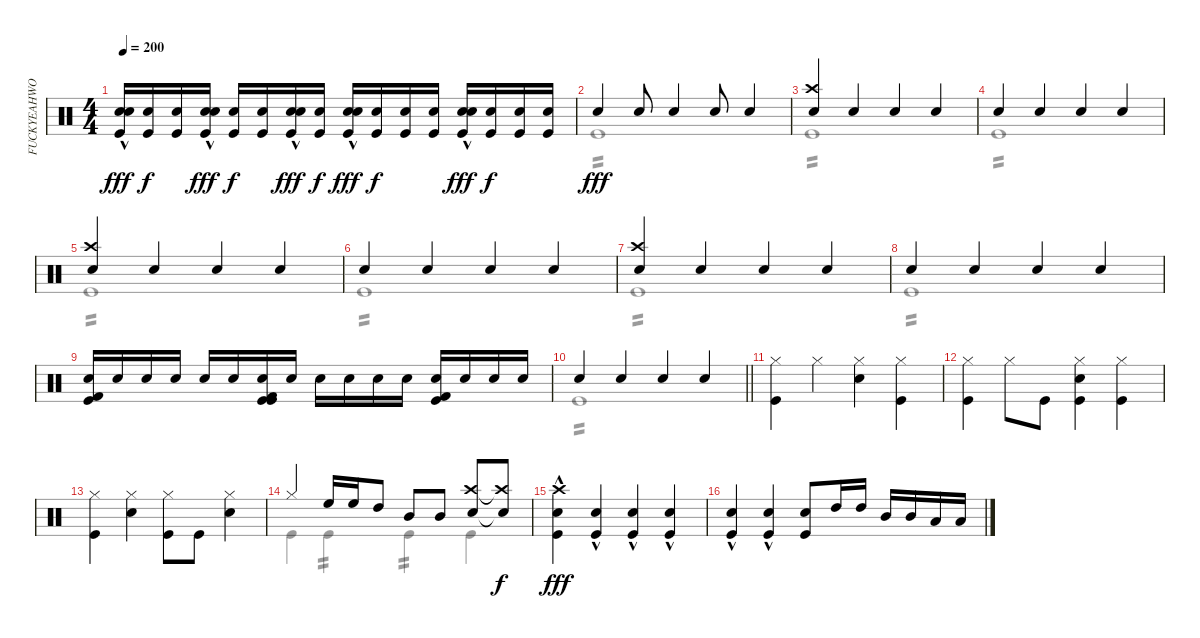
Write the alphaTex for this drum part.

\track ("FUCKYEAHWOOTDAVEMACKINTOSH!(Percussion)" "FUCKYEAHWO") {instrument percussion}
\staff {score}
\articulation defaults
\voice
\ts (4 4)
\tempo 200
\clef neutral
\ks c
("Snare (hit) 2"{hac} "Kick (hit)"{hac} "Electric Snare (hit)").16{dy fff} ("Snare (hit) 2" "Kick (hit)").16{dy f} ("Snare (hit) 2" "Kick (hit)").16 ("Snare (hit) 2"{hac} "Kick (hit)"{hac} "Electric Snare (hit)").16{dy fff} ("Snare (hit) 2" "Kick (hit)").16{dy f} ("Snare (hit) 2" "Kick (hit)").16 ("Snare (hit) 2"{hac} "Kick (hit)"{hac} "Electric Snare (hit)").16{dy fff} ("Snare (hit) 2" "Kick (hit)").16{dy f} ("Kick (hit)"{hac} "Snare (hit) 2"{hac} "Electric Snare (hit)").16{dy fff} ("Snare (hit) 2" "Kick (hit)").16{dy f} ("Snare (hit) 2" "Kick (hit)").16 ("Snare (hit) 2" "Kick (hit)").16 ("Snare (hit) 2"{hac} "Kick (hit)"{hac} "Electric Snare (hit)").16{dy fff} ("Snare (hit) 2" "Kick (hit)").16{dy f} ("Snare (hit) 2" "Kick (hit)").16 ("Kick (hit)" "Snare (hit) 2").16 |
"Snare (hit) 2".4{dy fff} "Snare (hit) 2".8 "Snare (hit) 2".4 "Snare (hit) 2".8 "Snare (hit) 2".4 |
("Snare (hit) 2" "Crash high (hit)").4 "Snare (hit) 2".4 "Snare (hit) 2".4 "Snare (hit) 2".4 |
"Snare (hit) 2".4 "Snare (hit) 2".4 "Snare (hit) 2".4 "Snare (hit) 2".4 |
("Snare (hit) 2" "Crash high (hit)").4 "Snare (hit) 2".4 "Snare (hit) 2".4 "Snare (hit) 2".4 |
"Snare (hit) 2".4 "Snare (hit) 2".4 "Snare (hit) 2".4 "Snare (hit) 2".4 |
("Snare (hit) 2" "Crash high (hit)").4 "Snare (hit) 2".4 "Snare (hit) 2".4 "Snare (hit) 2".4 |
"Snare (hit) 2".4 "Snare (hit) 2".4 "Snare (hit) 2".4 "Snare (hit) 2".4 |
("Snare (hit) 2" "Kick (hit)" "Kick (hit) 2").16 "Snare (hit) 2".16 "Snare (hit) 2".16 "Snare (hit) 2".16 "Snare (hit) 2".16 "Snare (hit) 2".16 ("Snare (hit) 2" "Kick (hit) 2" "Kick (hit)" "Kick (hit)").16 "Snare (hit) 2".16 "Snare (hit) 2".16 "Snare (hit) 2".16 "Snare (hit) 2".16 "Snare (hit) 2".16 ("Snare (hit) 2" "Kick (hit)" "Kick (hit) 2").16 "Snare (hit) 2".16 "Snare (hit) 2".16 "Snare (hit) 2".16 |
\barLineRight lightlight "Snare (hit) 2".4 "Snare (hit) 2".4 "Snare (hit) 2".4 "Snare (hit) 2".4
|
("Kick (hit)" "Hi-Hat (closed)").4 "Hi-Hat (closed)".4 ("Hi-Hat (closed)" "Snare (hit) 2").4 ("Hi-Hat (closed)" "Kick (hit)").4 |
("Hi-Hat (closed)" "Kick (hit)").4 "Hi-Hat (closed)".8 "Kick (hit)".8 ("Kick (hit)" "Snare (hit) 2" "Hi-Hat (closed)").4 ("Kick (hit)" "Hi-Hat (closed)").4 |
("Hi-Hat (closed)" "Kick (hit)").4 ("Hi-Hat (closed)" "Snare (hit) 2").4 ("Kick (hit)" "Hi-Hat (closed)").8 "Kick (hit)".8 ("Snare (hit) 2" "Hi-Hat (closed)").4 |
"Hi-Hat (closed)".4 "High Floor Tom (hit)".16 "High Floor Tom (hit)".16 "High Tom (hit)".8 "Mid Tom (hit)".8 "Mid Tom (hit)".8 ("Snare (hit) 2" "Crash high (hit)").8 ("Snare (hit) 2"{t} "Crash high (hit)"{t}).8{dy f} |
("Kick (hit)"{hac} "Snare (hit) 2"{hac} "Crash high (hit)"{hac}).4{dy fff} ("Kick (hit)"{hac} "Snare (hit) 2"{hac}).4 ("Kick (hit)"{hac} "Snare (hit) 2"{hac}).4 ("Kick (hit)"{hac} "Snare (hit) 2"{hac}).4 |
("Kick (hit)"{hac} "Snare (hit) 2"{hac}).4 ("Kick (hit)"{hac} "Snare (hit) 2"{hac}).4 ("Kick (hit)" "Snare (hit) 2").8 "High Tom (hit)".16 "High Tom (hit)".16 "Mid Tom (hit)".16 "Mid Tom (hit)".16 "Low Tom (hit)".16 "Low Tom (hit)".16
\voice
\clef neutral
\ottava regular
\simile none
\ks c
|
"Kick (hit)".1{tp 2 dy fff} |
"Kick (hit)".1{tp 2} |
"Kick (hit)".1{tp 2} |
"Kick (hit)".1{tp 2} |
"Kick (hit)".1{tp 2} |
"Kick (hit)".1{tp 2} |
"Kick (hit)".1{tp 2} |
|
\barLineRight lightlight "Kick (hit)".1{tp 2}
|
|
|
|
"Kick (hit)".4 "Kick (hit)".4{tp 2} "Kick (hit)".4{tp 2} "Kick (hit)".4 |
|
